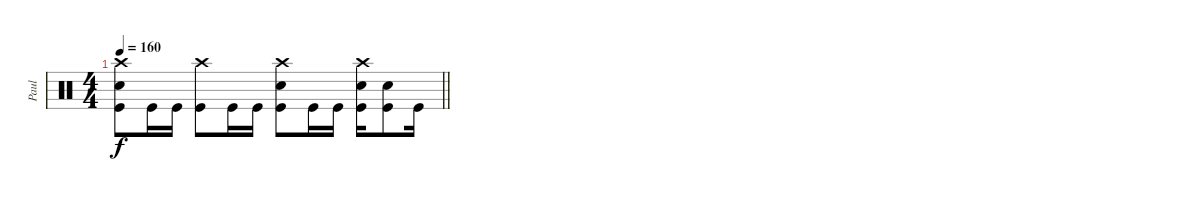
\track ("Paul" "Paul") {instrument percussion}
\staff {score}
\articulation defaults
\ts (4 4)
\tempo 160
\clef neutral
\barLineRight lightlight
\ks c
("Crash high (hit)" "Electric Snare (hit)" "Kick (hit)").8{dy f} "Kick (hit)".16 "Kick (hit)".16 ("Crash high (hit)" "Kick (hit)").8 "Kick (hit)".16 "Kick (hit)".16 ("Crash high (hit)" "Electric Snare (hit)" "Kick (hit)").8 "Kick (hit)".16 "Kick (hit)".16 ("Crash high (hit)" "Electric Snare (hit)" "Kick (hit)").16 ("Electric Snare (hit)" "Kick (hit)").8 "Kick (hit)".16
